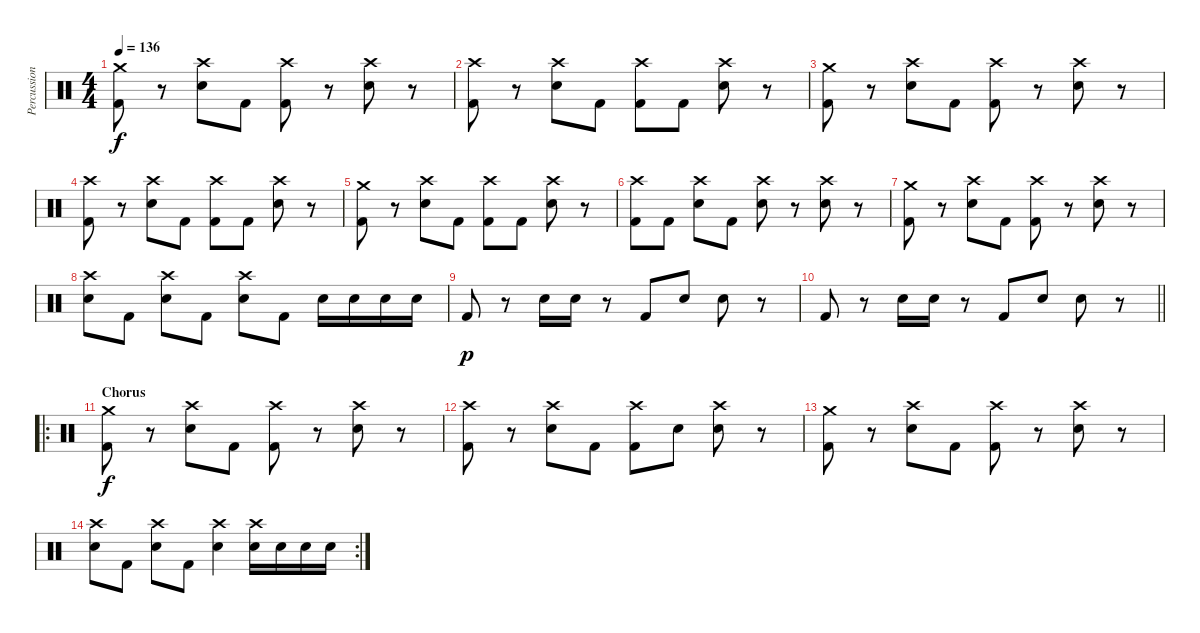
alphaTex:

\track ("Percussion" "Percussion") {instrument percussion}
\staff {score}
\articulation defaults
\ts (4 4)
\tempo 136
\clef neutral
\ks c
("Crash medium (hit)" "Kick (hit) 2").8{dy f} r.8 ("Crash high (hit)" "Snare (hit) 2").8 "Kick (hit) 2".8 ("Crash high (hit)" "Kick (hit) 2").8 r.8 ("Crash high (hit)" "Snare (hit) 2").8 r.8 |
("Crash high (hit)" "Kick (hit) 2").8 r.8 ("Crash high (hit)" "Snare (hit) 2").8 "Kick (hit) 2".8 ("Crash high (hit)" "Kick (hit) 2").8 "Kick (hit) 2".8 ("Crash high (hit)" "Snare (hit) 2").8 r.8 |
("Crash medium (hit)" "Kick (hit) 2").8 r.8 ("Crash high (hit)" "Snare (hit) 2").8 "Kick (hit) 2".8 ("Crash high (hit)" "Kick (hit) 2").8 r.8 ("Crash high (hit)" "Snare (hit) 2").8 r.8 |
("Crash high (hit)" "Kick (hit) 2").8 r.8 ("Crash high (hit)" "Snare (hit) 2").8 "Kick (hit) 2".8 ("Crash high (hit)" "Kick (hit) 2").8 "Kick (hit) 2".8 ("Crash high (hit)" "Snare (hit) 2").8 r.8 |
("Crash medium (hit)" "Kick (hit) 2").8 r.8 ("Crash high (hit)" "Snare (hit) 2").8 "Kick (hit) 2".8 ("Crash high (hit)" "Kick (hit) 2").8 "Kick (hit) 2".8 ("Crash high (hit)" "Snare (hit) 2").8 r.8 |
("Crash high (hit)" "Kick (hit) 2").8 "Kick (hit) 2".8 ("Crash high (hit)" "Snare (hit) 2").8 "Kick (hit) 2".8 ("Crash high (hit)" "Snare (hit) 2").8 r.8 ("Crash high (hit)" "Snare (hit) 2").8 r.8 |
("Crash medium (hit)" "Kick (hit) 2").8 r.8 ("Crash high (hit)" "Snare (hit) 2").8 "Kick (hit) 2".8 ("Crash high (hit)" "Kick (hit) 2").8 r.8 ("Crash high (hit)" "Snare (hit) 2").8 r.8 |
("Crash high (hit)" "Snare (hit) 2").8 "Kick (hit) 2".8 ("Crash high (hit)" "Snare (hit) 2").8 "Kick (hit) 2".8 ("Crash high (hit)" "Snare (hit) 2").8 "Kick (hit) 2".8 "Snare (hit) 2".16 "Snare (hit) 2".16 "Snare (hit) 2".16 "Snare (hit) 2".16 |
"Kick (hit) 2".8{dy p} r.8 "Snare (hit) 2".16 "Snare (hit) 2".16 r.8 "Kick (hit) 2".8 "Snare (hit) 2".8 "Snare (hit) 2".8 r.8 |
\barLineRight lightlight "Kick (hit) 2".8
r.8 "Snare (hit) 2".16 "Snare (hit) 2".16 r.8 "Kick (hit) 2".8 "Snare (hit) 2".8 "Snare (hit) 2".8 r.8 |
\ro
\section ("" "Chorus")
("Crash medium (hit)" "Kick (hit) 2").8{dy f} r.8 ("Crash high (hit)" "Snare (hit) 2").8 "Kick (hit) 2".8 ("Crash high (hit)" "Kick (hit) 2").8 r.8 ("Crash high (hit)" "Snare (hit) 2").8 r.8 |
("Crash high (hit)" "Kick (hit) 2").8 r.8 ("Crash high (hit)" "Snare (hit) 2").8 "Kick (hit) 2".8 ("Crash high (hit)" "Kick (hit) 2").8 "Snare (hit) 2".8 ("Crash high (hit)" "Snare (hit) 2").8 r.8 |
("Crash medium (hit)" "Kick (hit) 2").8 r.8 ("Crash high (hit)" "Snare (hit) 2").8 "Kick (hit) 2".8 ("Crash high (hit)" "Kick (hit) 2").8 r.8 ("Crash high (hit)" "Snare (hit) 2").8 r.8 |
\rc 2
("Crash high (hit)" "Snare (hit) 2").8 "Kick (hit) 2".8 ("Crash high (hit)" "Snare (hit) 2").8 "Kick (hit) 2".8 ("Crash high (hit)" "Snare (hit) 2").4 ("Crash high (hit)" "Snare (hit) 2").16 "Snare (hit) 2".16 "Snare (hit) 2".16 "Snare (hit) 2".16
